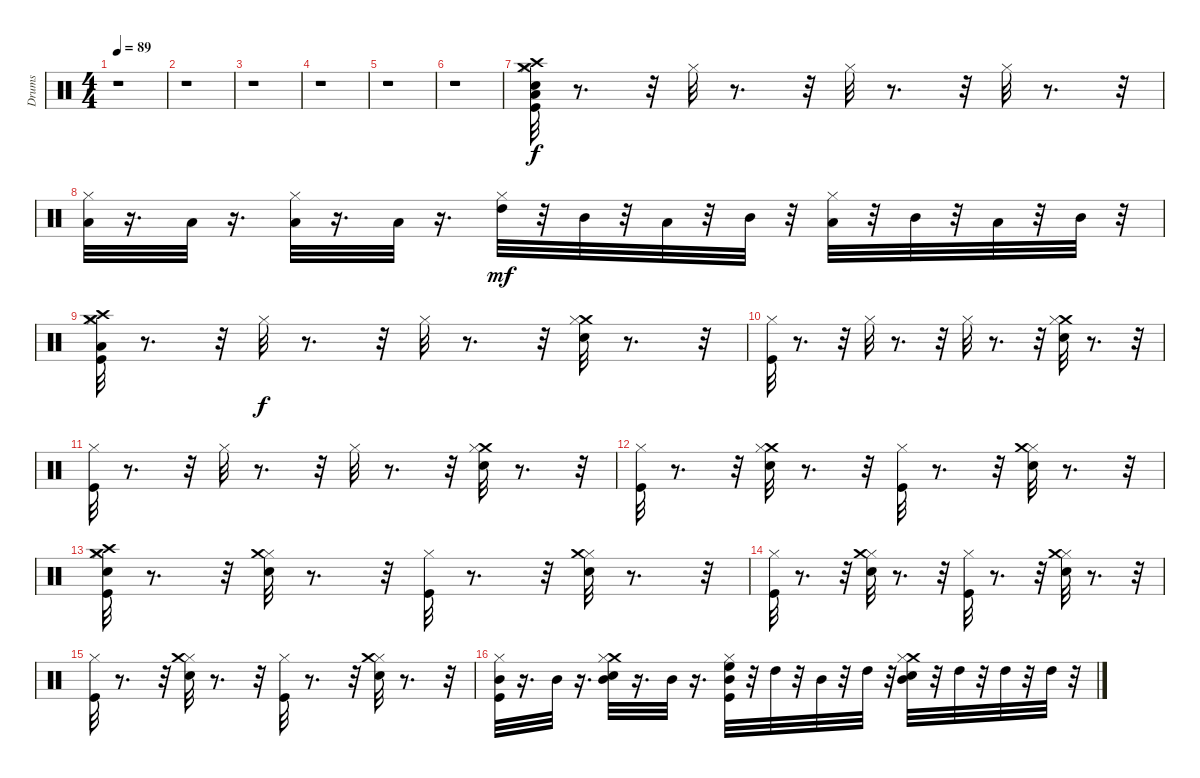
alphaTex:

\track ("Drums" "Drums") {instrument percussion}
\staff {score}
\articulation defaults
\ts (4 4)
\tempo 89
\clef neutral
\ks c
r.1{dy f} |
r.1 |
r.1 |
r.1 |
r.1 |
r.1 |
("Crash medium (hit)" "Hi-Hat (closed)" "Snare (hit) 2" "Kick (hit)" "Crash high (hit)" "Low Tom (hit)").32 r.8{d} r.32 "Hi-Hat (closed)".32 r.8{d} r.32 "Hi-Hat (closed)".32 r.8{d} r.32 "Hi-Hat (closed)".32 r.8{d} r.32 |
("Hi-Hat (closed)" "Low Tom (hit)").32 r.16{d} "Low Tom (hit)".32 r.16{d} ("Hi-Hat (closed)" "Low Tom (hit)").32 r.16{d} "Low Tom (hit)".32 r.16{d} ("Hi-Hat (closed)" "High Tom (hit)").32{dy mf} r.32 "Mid Tom (hit)".32 r.32 "Low Tom (hit)".32 r.32 "Mid Tom (hit)".32 r.32 ("Hi-Hat (closed)" "Low Tom (hit)").32 r.32 "Mid Tom (hit)".32 r.32 "Low Tom (hit)".32 r.32 "Mid Tom (hit)".32 r.32 |
("Crash medium (hit)" "Kick (hit)" "Hi-Hat (closed)" "Crash high (hit)" "Low Tom (hit)").32 r.8{d} r.32 "Hi-Hat (closed)".32{dy f} r.8{d} r.32 "Hi-Hat (closed)".32 r.8{d} r.32 ("Crash medium (hit)" "Snare (hit) 2" "Hi-Hat (closed)").32 r.8{d} r.32 |
("Kick (hit)" "Hi-Hat (closed)").32 r.8{d} r.32 "Hi-Hat (closed)".32 r.8{d} r.32 "Hi-Hat (closed)".32 r.8{d} r.32 ("Crash medium (hit)" "Snare (hit) 2" "Hi-Hat (closed)").32 r.8{d} r.32 |
("Kick (hit)" "Hi-Hat (closed)").32 r.8{d} r.32 "Hi-Hat (closed)".32 r.8{d} r.32 "Hi-Hat (closed)".32 r.8{d} r.32 ("Snare (hit) 2" "Crash medium (hit)" "Hi-Hat (closed)").32 r.8{d} r.32 |
("Kick (hit)" "Hi-Hat (closed)").32 r.8{d} r.32 ("Crash medium (hit)" "Snare (hit) 2" "Hi-Hat (closed)").32 r.8{d} r.32 ("Kick (hit)" "Hi-Hat (closed)").32 r.8{d} r.32 ("Hi-Hat (closed)" "Crash medium (hit)" "Snare (hit) 2").32 r.8{d} r.32 |
("Kick (hit)" "Snare (hit) 2" "Hi-Hat (closed)" "Crash high (hit)" "Crash medium (hit)").32 r.8{d} r.32 ("Hi-Hat (closed)" "Crash medium (hit)" "Snare (hit) 2").32 r.8{d} r.32 ("Hi-Hat (closed)" "Kick (hit)").32 r.8{d} r.32 ("Hi-Hat (closed)" "Crash medium (hit)" "Snare (hit) 2").32 r.8{d} r.32 |
("Hi-Hat (closed)" "Kick (hit)").32 r.8{d} r.32 ("Hi-Hat (closed)" "Snare (hit) 2" "Crash medium (hit)").32 r.8{d} r.32 ("Hi-Hat (closed)" "Kick (hit)").32 r.8{d} r.32 ("Hi-Hat (closed)" "Snare (hit) 2" "Crash medium (hit)").32 r.8{d} r.32 |
("Hi-Hat (closed)" "Kick (hit)").32 r.8{d} r.32 ("Hi-Hat (closed)" "Crash medium (hit)" "Snare (hit) 2").32 r.8{d} r.32 ("Hi-Hat (closed)" "Kick (hit)").32 r.8{d} r.32 ("Hi-Hat (closed)" "Crash medium (hit)" "Snare (hit) 2").32 r.8{d} r.32 |
("Mid Tom (hit)" "Hi-Hat (closed)" "Kick (hit)").32 r.16{d} "Mid Tom (hit)".32 r.16{d} ("Mid Tom (hit)" "Crash medium (hit)" "Hi-Hat (closed)" "Snare (hit) 2").32 r.16{d} "Mid Tom (hit)".32 r.16{d} ("High Floor Tom (hit)" "Mid Tom (hit)" "Hi-Hat (closed)" "Kick (hit)").32 r.32 "High Tom (hit)".32 r.32 "Mid Tom (hit)".32 r.32 "High Tom (hit)".32 r.32 ("Mid Tom (hit)" "Crash medium (hit)" "Hi-Hat (closed)" "Snare (hit) 2").32 r.32 "High Tom (hit)".32 r.32 "High Tom (hit)".32 r.32 "High Tom (hit)".32 r.32
